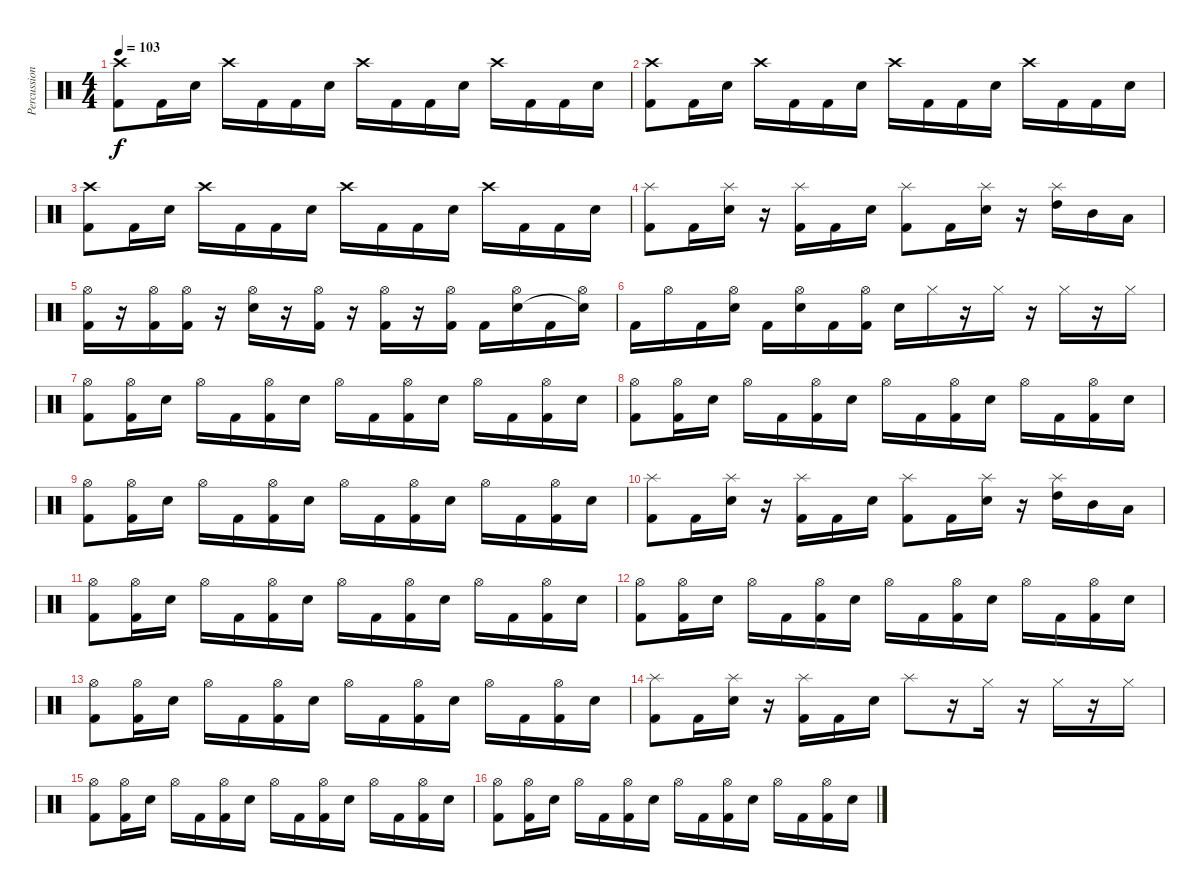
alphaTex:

\track ("Percussion" "Percussion") {instrument percussion}
\staff {score}
\articulation defaults
\ts (4 4)
\tempo 103
\clef neutral
\ks c
("Crash high (hit)" "Kick (hit) 2").8{dy f} "Kick (hit) 2".16 "Electric Snare (hit)".16 "Crash high (hit)".16 "Kick (hit) 2".16 "Kick (hit) 2".16 "Electric Snare (hit)".16 "Crash high (hit)".16 "Kick (hit) 2".16 "Kick (hit) 2".16 "Electric Snare (hit)".16 "Crash high (hit)".16 "Kick (hit) 2".16 "Kick (hit) 2".16 "Electric Snare (hit)".16 |
("Crash high (hit)" "Kick (hit) 2").8 "Kick (hit) 2".16 "Electric Snare (hit)".16 "Crash high (hit)".16 "Kick (hit) 2".16 "Kick (hit) 2".16 "Electric Snare (hit)".16 "Crash high (hit)".16 "Kick (hit) 2".16 "Kick (hit) 2".16 "Electric Snare (hit)".16 "Crash high (hit)".16 "Kick (hit) 2".16 "Kick (hit) 2".16 "Electric Snare (hit)".16 |
("Crash high (hit)" "Kick (hit) 2").8 "Kick (hit) 2".16 "Electric Snare (hit)".16 "Crash high (hit)".16 "Kick (hit) 2".16 "Kick (hit) 2".16 "Electric Snare (hit)".16 "Crash high (hit)".16 "Kick (hit) 2".16 "Kick (hit) 2".16 "Electric Snare (hit)".16 "Crash high (hit)".16 "Kick (hit) 2".16 "Kick (hit) 2".16 "Electric Snare (hit)".16 |
("Splash (hit)" "Kick (hit) 2").8 "Kick (hit) 2".16 ("Splash (hit)" "Electric Snare (hit)").16 r.16 ("Splash (hit)" "Kick (hit) 2").16 "Kick (hit) 2".16 "Electric Snare (hit)".16 ("Splash (hit)" "Kick (hit) 2").8 "Kick (hit) 2".16 ("Splash (hit)" "Electric Snare (hit)").16 r.16 ("Splash (hit)" "High Tom (hit)").16 "Mid Tom (hit)".16 "Low Tom (hit)".16 |
("Hi-Hat (open)" "Kick (hit) 2").16 r.16 ("Hi-Hat (open)" "Kick (hit) 2").16 ("Hi-Hat (open)" "Kick (hit) 2").16 r.16 ("Hi-Hat (open)" "Electric Snare (hit)").16 r.16 ("Hi-Hat (open)" "Kick (hit) 2").16 r.16 ("Hi-Hat (open)" "Kick (hit) 2").16 r.16 ("Hi-Hat (open)" "Kick (hit) 2").16 "Kick (hit) 2".16 ("Hi-Hat (open)" "Electric Snare (hit)").16 "Kick (hit) 2".16 ("Hi-Hat (open)" "Snare (hit)"{t}).16 |
"Kick (hit) 2".16 "Hi-Hat (open)".16 "Kick (hit) 2".16 ("Hi-Hat (open)" "Electric Snare (hit)").16 "Kick (hit) 2".16 ("Hi-Hat (open)" "Electric Snare (hit)").16 "Kick (hit) 2".16 ("Hi-Hat (open)" "Kick (hit) 2").16 "Electric Snare (hit)".16 "Hi-Hat (closed)".16 r.16 "Hi-Hat (closed)".16 r.16 "Hi-Hat (closed)".16 r.16 "Hi-Hat (closed)".16 |
("Hi-Hat (open)" "Kick (hit) 2").8 ("Hi-Hat (open)" "Kick (hit) 2").16 "Electric Snare (hit)".16 "Hi-Hat (open)".16 "Kick (hit) 2".16 ("Hi-Hat (open)" "Kick (hit) 2").16 "Electric Snare (hit)".16 "Hi-Hat (open)".16 "Kick (hit) 2".16 ("Hi-Hat (open)" "Kick (hit) 2").16 "Electric Snare (hit)".16 "Hi-Hat (open)".16 "Kick (hit) 2".16 ("Hi-Hat (open)" "Kick (hit) 2").16 "Electric Snare (hit)".16 |
("Hi-Hat (open)" "Kick (hit) 2").8 ("Hi-Hat (open)" "Kick (hit) 2").16 "Electric Snare (hit)".16 "Hi-Hat (open)".16 "Kick (hit) 2".16 ("Hi-Hat (open)" "Kick (hit) 2").16 "Electric Snare (hit)".16 "Hi-Hat (open)".16 "Kick (hit) 2".16 ("Hi-Hat (open)" "Kick (hit) 2").16 "Electric Snare (hit)".16 "Hi-Hat (open)".16 "Kick (hit) 2".16 ("Hi-Hat (open)" "Kick (hit) 2").16 "Electric Snare (hit)".16 |
("Hi-Hat (open)" "Kick (hit) 2").8 ("Hi-Hat (open)" "Kick (hit) 2").16 "Electric Snare (hit)".16 "Hi-Hat (open)".16 "Kick (hit) 2".16 ("Hi-Hat (open)" "Kick (hit) 2").16 "Electric Snare (hit)".16 "Hi-Hat (open)".16 "Kick (hit) 2".16 ("Hi-Hat (open)" "Kick (hit) 2").16 "Electric Snare (hit)".16 "Hi-Hat (open)".16 "Kick (hit) 2".16 ("Hi-Hat (open)" "Kick (hit) 2").16 "Electric Snare (hit)".16 |
("Splash (hit)" "Kick (hit) 2").8 "Kick (hit) 2".16 ("Splash (hit)" "Electric Snare (hit)").16 r.16 ("Splash (hit)" "Kick (hit) 2").16 "Kick (hit) 2".16 "Electric Snare (hit)".16 ("Splash (hit)" "Kick (hit) 2").8 "Kick (hit) 2".16 ("Splash (hit)" "Electric Snare (hit)").16 r.16 ("Splash (hit)" "High Tom (hit)").16 "Mid Tom (hit)".16 "Low Tom (hit)".16 |
("Hi-Hat (open)" "Kick (hit) 2").8 ("Hi-Hat (open)" "Kick (hit) 2").16 "Electric Snare (hit)".16 "Hi-Hat (open)".16 "Kick (hit) 2".16 ("Hi-Hat (open)" "Kick (hit) 2").16 "Electric Snare (hit)".16 "Hi-Hat (open)".16 "Kick (hit) 2".16 ("Hi-Hat (open)" "Kick (hit) 2").16 "Electric Snare (hit)".16 "Hi-Hat (open)".16 "Kick (hit) 2".16 ("Hi-Hat (open)" "Kick (hit) 2").16 "Electric Snare (hit)".16 |
("Hi-Hat (open)" "Kick (hit) 2").8 ("Hi-Hat (open)" "Kick (hit) 2").16 "Electric Snare (hit)".16 "Hi-Hat (open)".16 "Kick (hit) 2".16 ("Hi-Hat (open)" "Kick (hit) 2").16 "Electric Snare (hit)".16 "Hi-Hat (open)".16 "Kick (hit) 2".16 ("Hi-Hat (open)" "Kick (hit) 2").16 "Electric Snare (hit)".16 "Hi-Hat (open)".16 "Kick (hit) 2".16 ("Hi-Hat (open)" "Kick (hit) 2").16 "Electric Snare (hit)".16 |
("Hi-Hat (open)" "Kick (hit) 2").8 ("Hi-Hat (open)" "Kick (hit) 2").16 "Electric Snare (hit)".16 "Hi-Hat (open)".16 "Kick (hit) 2".16 ("Hi-Hat (open)" "Kick (hit) 2").16 "Electric Snare (hit)".16 "Hi-Hat (open)".16 "Kick (hit) 2".16 ("Hi-Hat (open)" "Kick (hit) 2").16 "Electric Snare (hit)".16 "Hi-Hat (open)".16 "Kick (hit) 2".16 ("Hi-Hat (open)" "Kick (hit) 2").16 "Electric Snare (hit)".16 |
("Splash (hit)" "Kick (hit) 2").8 "Kick (hit) 2".16 ("Splash (hit)" "Electric Snare (hit)").16 r.16 ("Splash (hit)" "Kick (hit) 2").16 "Kick (hit) 2".16 "Electric Snare (hit)".16 "Splash (hit)".8 r.16 "Hi-Hat (closed)".16 r.16 "Hi-Hat (closed)".16 r.16 "Hi-Hat (closed)".16 |
("Hi-Hat (open)" "Kick (hit) 2").8 ("Hi-Hat (open)" "Kick (hit) 2").16 "Electric Snare (hit)".16 "Hi-Hat (open)".16 "Kick (hit) 2".16 ("Hi-Hat (open)" "Kick (hit) 2").16 "Electric Snare (hit)".16 "Hi-Hat (open)".16 "Kick (hit) 2".16 ("Hi-Hat (open)" "Kick (hit) 2").16 "Electric Snare (hit)".16 "Hi-Hat (open)".16 "Kick (hit) 2".16 ("Hi-Hat (open)" "Kick (hit) 2").16 "Electric Snare (hit)".16 |
("Hi-Hat (open)" "Kick (hit) 2").8 ("Hi-Hat (open)" "Kick (hit) 2").16 "Electric Snare (hit)".16 "Hi-Hat (open)".16 "Kick (hit) 2".16 ("Hi-Hat (open)" "Kick (hit) 2").16 "Electric Snare (hit)".16 "Hi-Hat (open)".16 "Kick (hit) 2".16 ("Hi-Hat (open)" "Kick (hit) 2").16 "Electric Snare (hit)".16 "Hi-Hat (open)".16 "Kick (hit) 2".16 ("Hi-Hat (open)" "Kick (hit) 2").16 "Electric Snare (hit)".16
